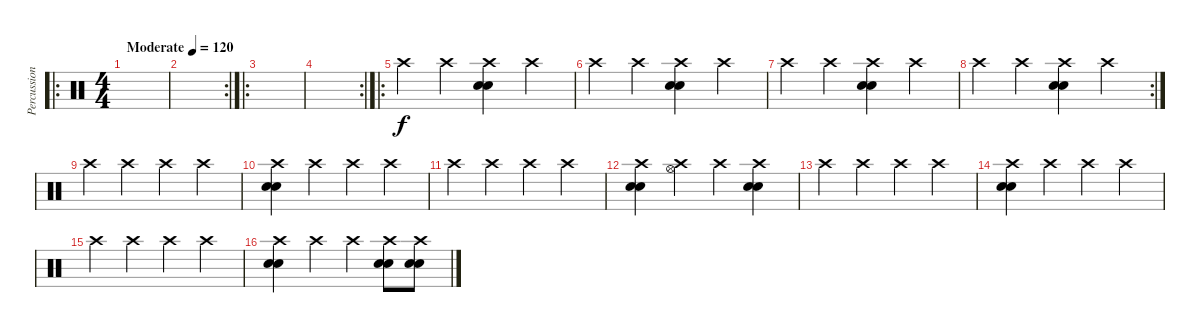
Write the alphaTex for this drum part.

\track ("Percussion" "Percussion") {instrument percussion}
\staff {score}
\articulation defaults
\ro
\ts (4 4)
\tempo (120 "Moderate")
\clef neutral
\ks c
|
\rc 2
|
\ro
|
\rc 2
|
\ro "Crash high (hit)".4 "Crash high (hit)".4
("Electric Snare (hit)" "Crash high (hit)" "Electric Snare (hit)").4 "Crash high (hit)".4 |
"Crash high (hit)".4 "Crash high (hit)".4 ("Electric Snare (hit)" "Crash high (hit)" "Electric Snare (hit)").4 "Crash high (hit)".4 |
"Crash high (hit)".4 "Crash high (hit)".4 ("Electric Snare (hit)" "Crash high (hit)" "Electric Snare (hit)").4 "Crash high (hit)".4 |
\rc 2 "Crash high (hit)".4 "Crash high (hit)".4
("Electric Snare (hit)" "Crash high (hit)" "Electric Snare (hit)").4 "Crash high (hit)".4 |
"Crash high (hit)".4 "Crash high (hit)".4 "Crash high (hit)".4 "Crash high (hit)".4 |
("Electric Snare (hit)" "Crash high (hit)" "Electric Snare (hit)").4 "Crash high (hit)".4 "Crash high (hit)".4 "Crash high (hit)".4 |
"Crash high (hit)".4 "Crash high (hit)".4 "Crash high (hit)".4 "Crash high (hit)".4 |
("Electric Snare (hit)" "Crash high (hit)" "Electric Snare (hit)").4 ("Hi-Hat (open)" "Crash high (hit)").4 "Crash high (hit)".4 ("Electric Snare (hit)" "Crash high (hit)" "Electric Snare (hit)").4 |
"Crash high (hit)".4 "Crash high (hit)".4 "Crash high (hit)".4 "Crash high (hit)".4 |
("Electric Snare (hit)" "Crash high (hit)" "Electric Snare (hit)").4 "Crash high (hit)".4 "Crash high (hit)".4 "Crash high (hit)".4 |
"Crash high (hit)".4 "Crash high (hit)".4 "Crash high (hit)".4 "Crash high (hit)".4 |
("Electric Snare (hit)" "Crash high (hit)" "Electric Snare (hit)").4 "Crash high (hit)".4 "Crash high (hit)".4 ("Electric Snare (hit)" "Crash high (hit)" "Electric Snare (hit)").8 ("Electric Snare (hit)" "Crash high (hit)" "Electric Snare (hit)").8
